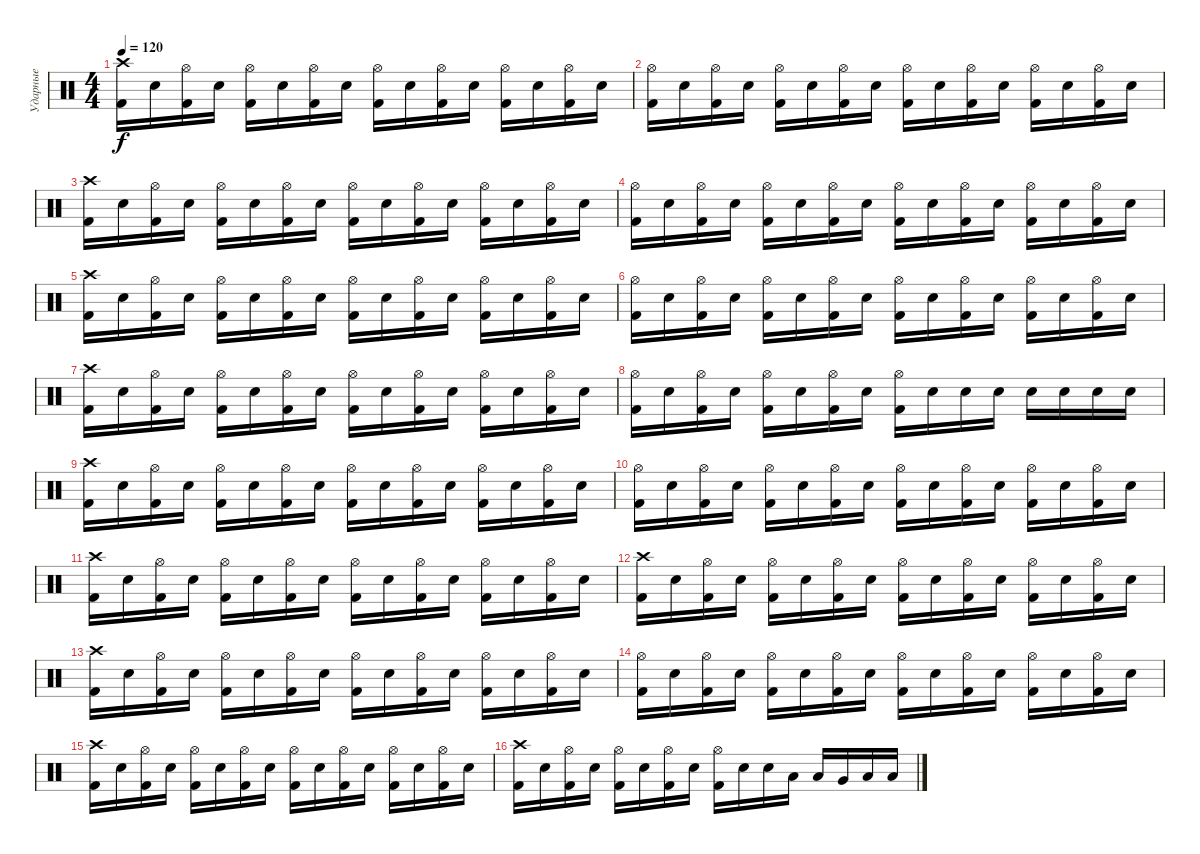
\track ("Ударные" "Ударные") {instrument percussion}
\staff {score}
\articulation defaults
\ts (4 4)
\tempo 120
\clef neutral
\ks c
("Crash high (hit)" "Kick (hit) 2").16{dy f} "Electric Snare (hit)".16 ("Hi-Hat (open)" "Kick (hit) 2").16 "Electric Snare (hit)".16 ("Hi-Hat (open)" "Kick (hit) 2").16 "Electric Snare (hit)".16 ("Hi-Hat (open)" "Kick (hit) 2").16 "Electric Snare (hit)".16 ("Hi-Hat (open)" "Kick (hit) 2").16 "Electric Snare (hit)".16 ("Hi-Hat (open)" "Kick (hit) 2").16 "Electric Snare (hit)".16 ("Hi-Hat (open)" "Kick (hit) 2").16 "Electric Snare (hit)".16 ("Hi-Hat (open)" "Kick (hit) 2").16 "Electric Snare (hit)".16 |
("Hi-Hat (open)" "Kick (hit) 2").16 "Electric Snare (hit)".16 ("Hi-Hat (open)" "Kick (hit) 2").16 "Electric Snare (hit)".16 ("Hi-Hat (open)" "Kick (hit) 2").16 "Electric Snare (hit)".16 ("Hi-Hat (open)" "Kick (hit) 2").16 "Electric Snare (hit)".16 ("Hi-Hat (open)" "Kick (hit) 2").16 "Electric Snare (hit)".16 ("Hi-Hat (open)" "Kick (hit) 2").16 "Electric Snare (hit)".16 ("Hi-Hat (open)" "Kick (hit) 2").16 "Electric Snare (hit)".16 ("Hi-Hat (open)" "Kick (hit) 2").16 "Electric Snare (hit)".16 |
("Crash high (hit)" "Kick (hit) 2").16 "Electric Snare (hit)".16 ("Hi-Hat (open)" "Kick (hit) 2").16 "Electric Snare (hit)".16 ("Hi-Hat (open)" "Kick (hit) 2").16 "Electric Snare (hit)".16 ("Hi-Hat (open)" "Kick (hit) 2").16 "Electric Snare (hit)".16 ("Hi-Hat (open)" "Kick (hit) 2").16 "Electric Snare (hit)".16 ("Hi-Hat (open)" "Kick (hit) 2").16 "Electric Snare (hit)".16 ("Hi-Hat (open)" "Kick (hit) 2").16 "Electric Snare (hit)".16 ("Hi-Hat (open)" "Kick (hit) 2").16 "Electric Snare (hit)".16 |
("Hi-Hat (open)" "Kick (hit) 2").16 "Electric Snare (hit)".16 ("Hi-Hat (open)" "Kick (hit) 2").16 "Electric Snare (hit)".16 ("Hi-Hat (open)" "Kick (hit) 2").16 "Electric Snare (hit)".16 ("Hi-Hat (open)" "Kick (hit) 2").16 "Electric Snare (hit)".16 ("Hi-Hat (open)" "Kick (hit) 2").16 "Electric Snare (hit)".16 ("Hi-Hat (open)" "Kick (hit) 2").16 "Electric Snare (hit)".16 ("Hi-Hat (open)" "Kick (hit) 2").16 "Electric Snare (hit)".16 ("Hi-Hat (open)" "Kick (hit) 2").16 "Electric Snare (hit)".16 |
("Crash high (hit)" "Kick (hit) 2").16 "Electric Snare (hit)".16 ("Hi-Hat (open)" "Kick (hit) 2").16 "Electric Snare (hit)".16 ("Hi-Hat (open)" "Kick (hit) 2").16 "Electric Snare (hit)".16 ("Hi-Hat (open)" "Kick (hit) 2").16 "Electric Snare (hit)".16 ("Hi-Hat (open)" "Kick (hit) 2").16 "Electric Snare (hit)".16 ("Hi-Hat (open)" "Kick (hit) 2").16 "Electric Snare (hit)".16 ("Hi-Hat (open)" "Kick (hit) 2").16 "Electric Snare (hit)".16 ("Hi-Hat (open)" "Kick (hit) 2").16 "Electric Snare (hit)".16 |
("Hi-Hat (open)" "Kick (hit) 2").16 "Electric Snare (hit)".16 ("Hi-Hat (open)" "Kick (hit) 2").16 "Electric Snare (hit)".16 ("Hi-Hat (open)" "Kick (hit) 2").16 "Electric Snare (hit)".16 ("Hi-Hat (open)" "Kick (hit) 2").16 "Electric Snare (hit)".16 ("Hi-Hat (open)" "Kick (hit) 2").16 "Electric Snare (hit)".16 ("Hi-Hat (open)" "Kick (hit) 2").16 "Electric Snare (hit)".16 ("Hi-Hat (open)" "Kick (hit) 2").16 "Electric Snare (hit)".16 ("Hi-Hat (open)" "Kick (hit) 2").16 "Electric Snare (hit)".16 |
("Crash high (hit)" "Kick (hit) 2").16 "Electric Snare (hit)".16 ("Hi-Hat (open)" "Kick (hit) 2").16 "Electric Snare (hit)".16 ("Hi-Hat (open)" "Kick (hit) 2").16 "Electric Snare (hit)".16 ("Hi-Hat (open)" "Kick (hit) 2").16 "Electric Snare (hit)".16 ("Hi-Hat (open)" "Kick (hit) 2").16 "Electric Snare (hit)".16 ("Hi-Hat (open)" "Kick (hit) 2").16 "Electric Snare (hit)".16 ("Hi-Hat (open)" "Kick (hit) 2").16 "Electric Snare (hit)".16 ("Hi-Hat (open)" "Kick (hit) 2").16 "Electric Snare (hit)".16 |
("Hi-Hat (open)" "Kick (hit) 2").16 "Electric Snare (hit)".16 ("Hi-Hat (open)" "Kick (hit) 2").16 "Electric Snare (hit)".16 ("Hi-Hat (open)" "Kick (hit) 2").16 "Electric Snare (hit)".16 ("Hi-Hat (open)" "Kick (hit) 2").16 "Electric Snare (hit)".16 ("Hi-Hat (open)" "Kick (hit) 2").16 "Electric Snare (hit)".16 "Electric Snare (hit)".16 "Electric Snare (hit)".16 "Electric Snare (hit)".16 "Electric Snare (hit)".16 "Electric Snare (hit)".16 "Electric Snare (hit)".16 |
("Crash high (hit)" "Kick (hit) 2").16 "Electric Snare (hit)".16 ("Hi-Hat (open)" "Kick (hit) 2").16 "Electric Snare (hit)".16 ("Hi-Hat (open)" "Kick (hit) 2").16 "Electric Snare (hit)".16 ("Hi-Hat (open)" "Kick (hit) 2").16 "Electric Snare (hit)".16 ("Hi-Hat (open)" "Kick (hit) 2").16 "Electric Snare (hit)".16 ("Hi-Hat (open)" "Kick (hit) 2").16 "Electric Snare (hit)".16 ("Hi-Hat (open)" "Kick (hit) 2").16 "Electric Snare (hit)".16 ("Hi-Hat (open)" "Kick (hit) 2").16 "Electric Snare (hit)".16 |
("Hi-Hat (open)" "Kick (hit) 2").16 "Electric Snare (hit)".16 ("Hi-Hat (open)" "Kick (hit) 2").16 "Electric Snare (hit)".16 ("Hi-Hat (open)" "Kick (hit) 2").16 "Electric Snare (hit)".16 ("Hi-Hat (open)" "Kick (hit) 2").16 "Electric Snare (hit)".16 ("Hi-Hat (open)" "Kick (hit) 2").16 "Electric Snare (hit)".16 ("Hi-Hat (open)" "Kick (hit) 2").16 "Electric Snare (hit)".16 ("Hi-Hat (open)" "Kick (hit) 2").16 "Electric Snare (hit)".16 ("Hi-Hat (open)" "Kick (hit) 2").16 "Electric Snare (hit)".16 |
("Crash high (hit)" "Kick (hit) 2").16 "Electric Snare (hit)".16 ("Hi-Hat (open)" "Kick (hit) 2").16 "Electric Snare (hit)".16 ("Hi-Hat (open)" "Kick (hit) 2").16 "Electric Snare (hit)".16 ("Hi-Hat (open)" "Kick (hit) 2").16 "Electric Snare (hit)".16 ("Hi-Hat (open)" "Kick (hit) 2").16 "Electric Snare (hit)".16 ("Hi-Hat (open)" "Kick (hit) 2").16 "Electric Snare (hit)".16 ("Hi-Hat (open)" "Kick (hit) 2").16 "Electric Snare (hit)".16 ("Hi-Hat (open)" "Kick (hit) 2").16 "Electric Snare (hit)".16 |
("Crash high (hit)" "Kick (hit) 2").16 "Electric Snare (hit)".16 ("Hi-Hat (open)" "Kick (hit) 2").16 "Electric Snare (hit)".16 ("Hi-Hat (open)" "Kick (hit) 2").16 "Electric Snare (hit)".16 ("Hi-Hat (open)" "Kick (hit) 2").16 "Electric Snare (hit)".16 ("Hi-Hat (open)" "Kick (hit) 2").16 "Electric Snare (hit)".16 ("Hi-Hat (open)" "Kick (hit) 2").16 "Electric Snare (hit)".16 ("Hi-Hat (open)" "Kick (hit) 2").16 "Electric Snare (hit)".16 ("Hi-Hat (open)" "Kick (hit) 2").16 "Electric Snare (hit)".16 |
("Crash high (hit)" "Kick (hit) 2").16 "Electric Snare (hit)".16 ("Hi-Hat (open)" "Kick (hit) 2").16 "Electric Snare (hit)".16 ("Hi-Hat (open)" "Kick (hit) 2").16 "Electric Snare (hit)".16 ("Hi-Hat (open)" "Kick (hit) 2").16 "Electric Snare (hit)".16 ("Hi-Hat (open)" "Kick (hit) 2").16 "Electric Snare (hit)".16 ("Hi-Hat (open)" "Kick (hit) 2").16 "Electric Snare (hit)".16 ("Hi-Hat (open)" "Kick (hit) 2").16 "Electric Snare (hit)".16 ("Hi-Hat (open)" "Kick (hit) 2").16 "Electric Snare (hit)".16 |
("Hi-Hat (open)" "Kick (hit) 2").16 "Electric Snare (hit)".16 ("Hi-Hat (open)" "Kick (hit) 2").16 "Electric Snare (hit)".16 ("Hi-Hat (open)" "Kick (hit) 2").16 "Electric Snare (hit)".16 ("Hi-Hat (open)" "Kick (hit) 2").16 "Electric Snare (hit)".16 ("Hi-Hat (open)" "Kick (hit) 2").16 "Electric Snare (hit)".16 ("Hi-Hat (open)" "Kick (hit) 2").16 "Electric Snare (hit)".16 ("Hi-Hat (open)" "Kick (hit) 2").16 "Electric Snare (hit)".16 ("Hi-Hat (open)" "Kick (hit) 2").16 "Electric Snare (hit)".16 |
("Crash high (hit)" "Kick (hit) 2").16 "Electric Snare (hit)".16 ("Hi-Hat (open)" "Kick (hit) 2").16 "Electric Snare (hit)".16 ("Hi-Hat (open)" "Kick (hit) 2").16 "Electric Snare (hit)".16 ("Hi-Hat (open)" "Kick (hit) 2").16 "Electric Snare (hit)".16 ("Hi-Hat (open)" "Kick (hit) 2").16 "Electric Snare (hit)".16 ("Hi-Hat (open)" "Kick (hit) 2").16 "Electric Snare (hit)".16 ("Hi-Hat (open)" "Kick (hit) 2").16 "Electric Snare (hit)".16 ("Hi-Hat (open)" "Kick (hit) 2").16 "Electric Snare (hit)".16 |
("Crash high (hit)" "Kick (hit) 2").16 "Electric Snare (hit)".16 ("Hi-Hat (open)" "Kick (hit) 2").16 "Electric Snare (hit)".16 ("Hi-Hat (open)" "Kick (hit) 2").16 "Electric Snare (hit)".16 ("Hi-Hat (open)" "Kick (hit) 2").16 "Electric Snare (hit)".16 ("Hi-Hat (open)" "Kick (hit) 2").16 "Electric Snare (hit)".16 "Electric Snare (hit)".16 "Low Tom (hit)".16 "Low Tom (hit)".16 "Very Low Tom (hit)".16 "Low Floor Tom (hit)".16 "Low Floor Tom (hit)".16
